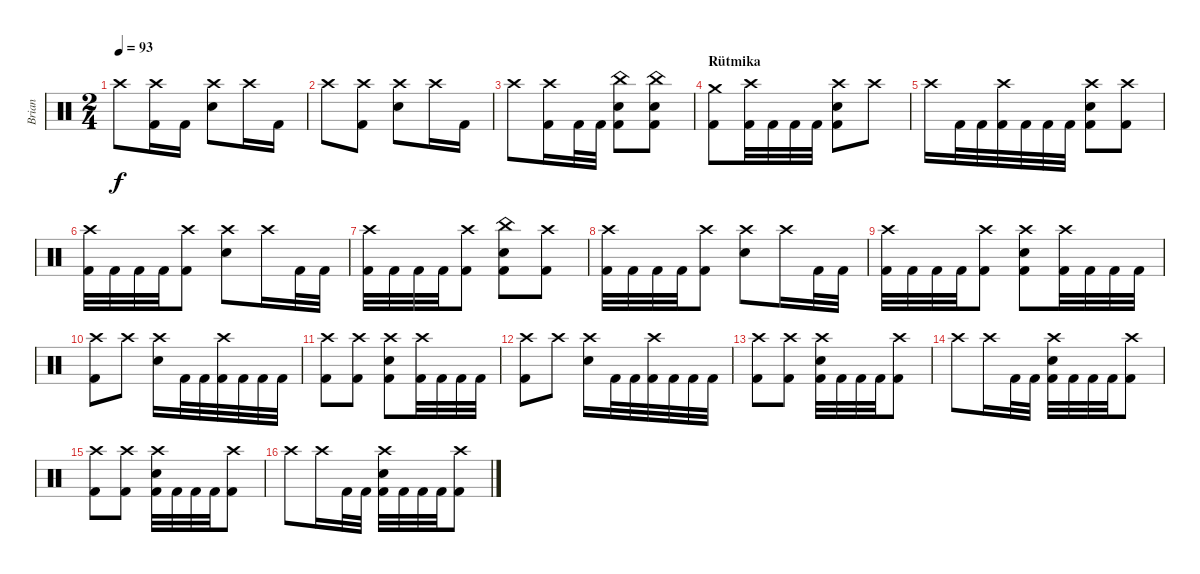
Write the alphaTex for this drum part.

\track ("Brian" "Brian") {instrument percussion}
\staff {score}
\articulation defaults
\ts (2 4)
\tempo 93
\clef neutral
\ks c "Crash high (hit)".8{dy f}
("Crash high (hit)" "Kick (hit) 2").16 "Kick (hit) 2".16 ("Crash high (hit)" "Electric Snare (hit)").8 "Crash high (hit)".16 "Kick (hit) 2".16 |
"Crash high (hit)".8 ("Crash high (hit)" "Kick (hit) 2").8 ("Crash high (hit)" "Electric Snare (hit)").8 "Crash high (hit)".16 "Kick (hit) 2".16 |
"Crash high (hit)".8 ("Crash high (hit)" "Kick (hit) 2").16 "Kick (hit) 2".32 "Kick (hit) 2".32 ("China (hit)" "Electric Snare (hit)" "Kick (hit) 2").8 ("China (hit)" "Electric Snare (hit)" "Kick (hit) 2").8 |
\section ("" "Rütmika")
("Crash medium (hit)" "Kick (hit) 2").8 ("Crash high (hit)" "Kick (hit) 2").32 "Kick (hit) 2".32 "Kick (hit) 2".32 "Kick (hit) 2".32 ("Crash high (hit)" "Electric Snare (hit)" "Kick (hit) 2").8 "Crash high (hit)".8 |
"Crash high (hit)".16 "Kick (hit) 2".32 "Kick (hit) 2".32 ("Crash high (hit)" "Kick (hit) 2").32 "Kick (hit) 2".32 "Kick (hit) 2".32 "Kick (hit) 2".32 ("Crash high (hit)" "Electric Snare (hit)" "Kick (hit) 2").8 ("Crash high (hit)" "Kick (hit) 2").8 |
("Crash high (hit)" "Kick (hit) 2").32 "Kick (hit) 2".32 "Kick (hit) 2".32 "Kick (hit) 2".32 ("Crash high (hit)" "Kick (hit) 2").8 ("Crash high (hit)" "Electric Snare (hit)").8 "Crash high (hit)".16 "Kick (hit) 2".32 "Kick (hit) 2".32 |
("Crash high (hit)" "Kick (hit) 2").32 "Kick (hit) 2".32 "Kick (hit) 2".32 "Kick (hit) 2".32 ("Crash high (hit)" "Kick (hit) 2").8 ("China (hit)" "Electric Snare (hit)" "Kick (hit) 2").8 ("Crash high (hit)" "Kick (hit) 2").8 |
("Crash high (hit)" "Kick (hit) 2").32 "Kick (hit) 2".32 "Kick (hit) 2".32 "Kick (hit) 2".32 ("Crash high (hit)" "Kick (hit) 2").8 ("Crash high (hit)" "Electric Snare (hit)").8 "Crash high (hit)".16 "Kick (hit) 2".32 "Kick (hit) 2".32 |
("Crash high (hit)" "Kick (hit) 2").32 "Kick (hit) 2".32 "Kick (hit) 2".32 "Kick (hit) 2".32 ("Crash high (hit)" "Kick (hit) 2").8 ("Crash high (hit)" "Electric Snare (hit)" "Kick (hit) 2").8 ("Crash high (hit)" "Kick (hit) 2").32 "Kick (hit) 2".32 "Kick (hit) 2".32 "Kick (hit) 2".32 |
("Crash high (hit)" "Kick (hit) 2").8 "Crash high (hit)".8 ("Crash high (hit)" "Electric Snare (hit)").16 "Kick (hit) 2".32 "Kick (hit) 2".32 ("Crash high (hit)" "Kick (hit) 2").32 "Kick (hit) 2".32 "Kick (hit) 2".32 "Kick (hit) 2".32 |
("Crash high (hit)" "Kick (hit) 2").8 ("Crash high (hit)" "Kick (hit) 2").8 ("Crash high (hit)" "Electric Snare (hit)" "Kick (hit) 2").8 ("Crash high (hit)" "Kick (hit) 2").32 "Kick (hit) 2".32 "Kick (hit) 2".32 "Kick (hit) 2".32 |
("Crash high (hit)" "Kick (hit) 2").8 "Crash high (hit)".8 ("Crash high (hit)" "Electric Snare (hit)").16 "Kick (hit) 2".32 "Kick (hit) 2".32 ("Crash high (hit)" "Kick (hit) 2").32 "Kick (hit) 2".32 "Kick (hit) 2".32 "Kick (hit) 2".32 |
("Crash high (hit)" "Kick (hit) 2").8 ("Crash high (hit)" "Kick (hit) 2").8 ("Crash high (hit)" "Electric Snare (hit)" "Kick (hit) 2").32 "Kick (hit) 2".32 "Kick (hit) 2".32 "Kick (hit) 2".32 ("Crash high (hit)" "Kick (hit) 2").8 |
"Crash high (hit)".8 "Crash high (hit)".16 "Kick (hit) 2".32 "Kick (hit) 2".32 ("Crash high (hit)" "Electric Snare (hit)" "Kick (hit) 2").32 "Kick (hit) 2".32 "Kick (hit) 2".32 "Kick (hit) 2".32 ("Crash high (hit)" "Kick (hit) 2").8 |
("Crash high (hit)" "Kick (hit) 2").8 ("Crash high (hit)" "Kick (hit) 2").8 ("Crash high (hit)" "Electric Snare (hit)" "Kick (hit) 2").32 "Kick (hit) 2".32 "Kick (hit) 2".32 "Kick (hit) 2".32 ("Crash high (hit)" "Kick (hit) 2").8 |
"Crash high (hit)".8 "Crash high (hit)".16 "Kick (hit) 2".32 "Kick (hit) 2".32 ("Crash high (hit)" "Electric Snare (hit)" "Kick (hit) 2").32 "Kick (hit) 2".32 "Kick (hit) 2".32 "Kick (hit) 2".32 ("Crash high (hit)" "Kick (hit) 2").8
